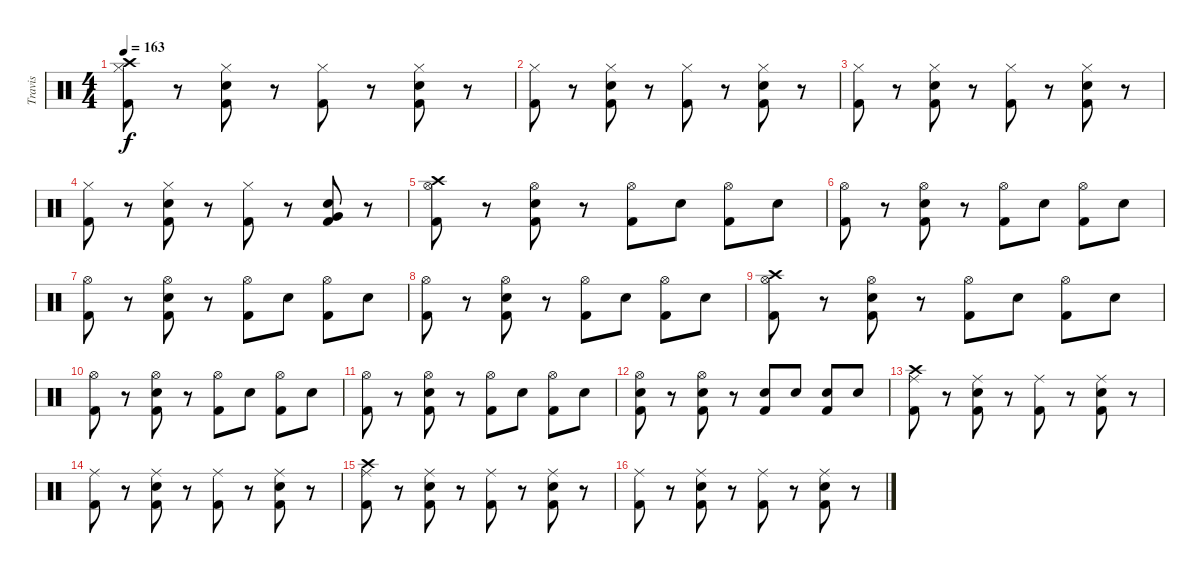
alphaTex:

\track ("Travis" "Travis") {instrument percussion}
\staff {score}
\articulation defaults
\ts (4 4)
\tempo 163
\clef neutral
\ks c
("Crash high (hit)" "Hi-Hat (closed)" "Kick (hit) 2").8{dy f} r.8 ("Hi-Hat (closed)" "Electric Snare (hit)" "Kick (hit) 2").8 r.8 ("Hi-Hat (closed)" "Kick (hit) 2").8 r.8 ("Hi-Hat (closed)" "Electric Snare (hit)" "Kick (hit) 2").8 r.8 |
("Hi-Hat (closed)" "Kick (hit) 2").8 r.8 ("Hi-Hat (closed)" "Electric Snare (hit)" "Kick (hit) 2").8 r.8 ("Hi-Hat (closed)" "Kick (hit) 2").8 r.8 ("Hi-Hat (closed)" "Electric Snare (hit)" "Kick (hit) 2").8 r.8 |
("Hi-Hat (closed)" "Kick (hit) 2").8 r.8 ("Hi-Hat (closed)" "Electric Snare (hit)" "Kick (hit) 2").8 r.8 ("Hi-Hat (closed)" "Kick (hit) 2").8 r.8 ("Hi-Hat (closed)" "Electric Snare (hit)" "Kick (hit) 2").8 r.8 |
("Hi-Hat (closed)" "Kick (hit) 2").8 r.8 ("Hi-Hat (closed)" "Electric Snare (hit)" "Kick (hit) 2").8 r.8 ("Hi-Hat (closed)" "Kick (hit) 2").8 r.8 ("Very Low Tom (hit)" "Electric Snare (hit)" "Kick (hit) 2").8 r.8 |
("Crash high (hit)" "Hi-Hat (open)" "Kick (hit) 2").8 r.8 ("Hi-Hat (open)" "Electric Snare (hit)" "Kick (hit) 2").8 r.8 ("Hi-Hat (open)" "Kick (hit) 2").8 "Electric Snare (hit)".8 ("Hi-Hat (open)" "Kick (hit) 2").8 "Electric Snare (hit)".8 |
("Hi-Hat (open)" "Kick (hit) 2").8 r.8 ("Hi-Hat (open)" "Electric Snare (hit)" "Kick (hit) 2").8 r.8 ("Hi-Hat (open)" "Kick (hit) 2").8 "Electric Snare (hit)".8 ("Hi-Hat (open)" "Kick (hit) 2").8 "Electric Snare (hit)".8 |
("Hi-Hat (open)" "Kick (hit) 2").8 r.8 ("Hi-Hat (open)" "Electric Snare (hit)" "Kick (hit) 2").8 r.8 ("Hi-Hat (open)" "Kick (hit) 2").8 "Electric Snare (hit)".8 ("Hi-Hat (open)" "Kick (hit) 2").8 "Electric Snare (hit)".8 |
("Hi-Hat (open)" "Kick (hit) 2").8 r.8 ("Hi-Hat (open)" "Electric Snare (hit)" "Kick (hit) 2").8 r.8 ("Hi-Hat (open)" "Kick (hit) 2").8 "Electric Snare (hit)".8 ("Hi-Hat (open)" "Kick (hit) 2").8 "Electric Snare (hit)".8 |
("Crash high (hit)" "Hi-Hat (open)" "Kick (hit) 2").8 r.8 ("Hi-Hat (open)" "Electric Snare (hit)" "Kick (hit) 2").8 r.8 ("Hi-Hat (open)" "Kick (hit) 2").8 "Electric Snare (hit)".8 ("Hi-Hat (open)" "Kick (hit) 2").8 "Electric Snare (hit)".8 |
("Hi-Hat (open)" "Kick (hit) 2").8 r.8 ("Hi-Hat (open)" "Electric Snare (hit)" "Kick (hit) 2").8 r.8 ("Hi-Hat (open)" "Kick (hit) 2").8 "Electric Snare (hit)".8 ("Hi-Hat (open)" "Kick (hit) 2").8 "Electric Snare (hit)".8 |
("Hi-Hat (open)" "Kick (hit) 2").8 r.8 ("Hi-Hat (open)" "Electric Snare (hit)" "Kick (hit) 2").8 r.8 ("Hi-Hat (open)" "Kick (hit) 2").8 "Electric Snare (hit)".8 ("Hi-Hat (open)" "Kick (hit) 2").8 "Electric Snare (hit)".8 |
("Hi-Hat (open)" "Electric Snare (hit)" "Kick (hit) 2").8 r.8 ("Hi-Hat (open)" "Electric Snare (hit)" "Kick (hit) 2").8 r.8 ("Electric Snare (hit)" "Kick (hit) 2").8 "Electric Snare (hit)".8 ("Electric Snare (hit)" "Kick (hit) 2").8 "Electric Snare (hit)".8 |
("Crash high (hit)" "Ride (middle)" "Kick (hit) 2").8 r.8 ("Ride (middle)" "Electric Snare (hit)" "Kick (hit) 2").8 r.8 ("Ride (middle)" "Kick (hit) 2").8 r.8 ("Ride (middle)" "Electric Snare (hit)" "Kick (hit) 2").8 r.8 |
("Ride (middle)" "Kick (hit) 2").8 r.8 ("Ride (middle)" "Electric Snare (hit)" "Kick (hit) 2").8 r.8 ("Ride (middle)" "Kick (hit) 2").8 r.8 ("Ride (middle)" "Electric Snare (hit)" "Kick (hit) 2").8 r.8 |
("Crash high (hit)" "Ride (middle)" "Kick (hit) 2").8 r.8 ("Ride (middle)" "Electric Snare (hit)" "Kick (hit) 2").8 r.8 ("Ride (middle)" "Kick (hit) 2").8 r.8 ("Ride (middle)" "Electric Snare (hit)" "Kick (hit) 2").8 r.8 |
("Ride (middle)" "Kick (hit) 2").8 r.8 ("Ride (middle)" "Electric Snare (hit)" "Kick (hit) 2").8 r.8 ("Ride (middle)" "Kick (hit) 2").8 r.8 ("Ride (middle)" "Electric Snare (hit)" "Kick (hit) 2").8 r.8
